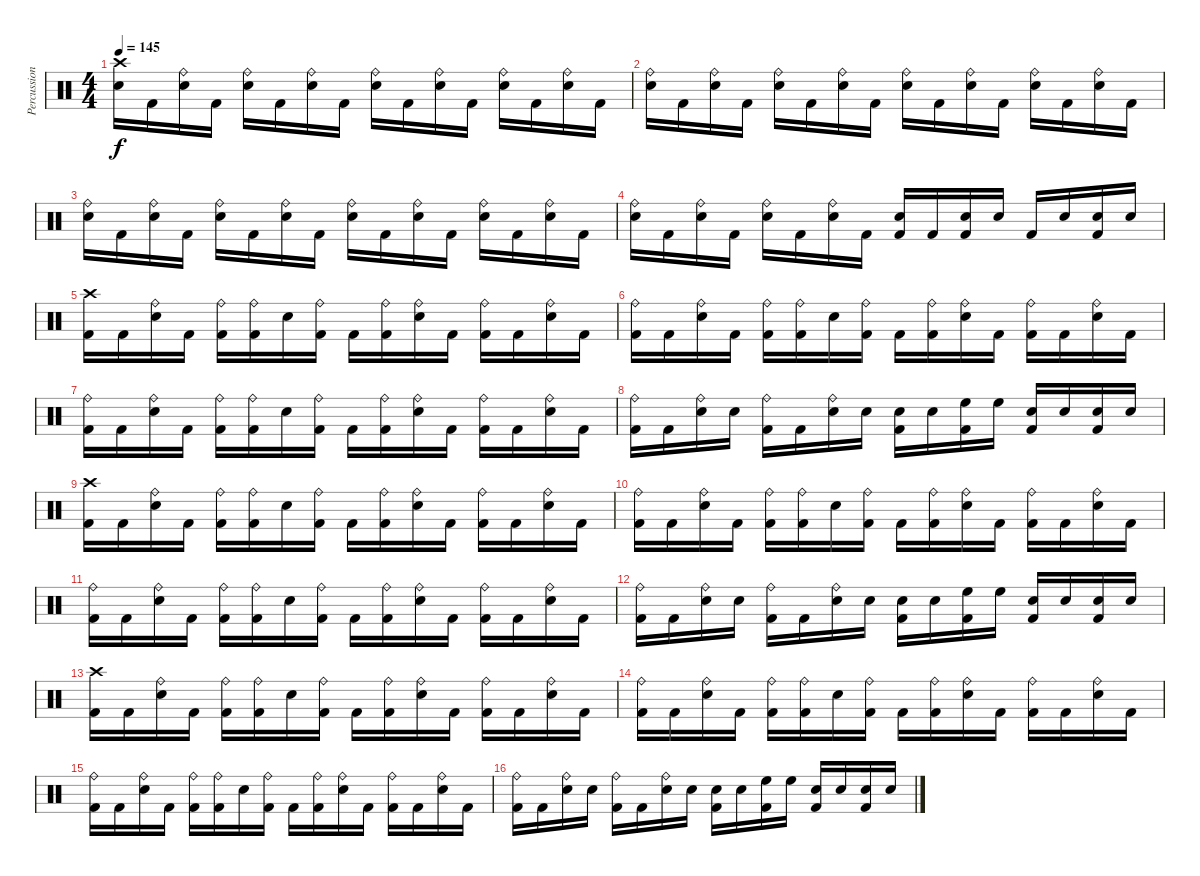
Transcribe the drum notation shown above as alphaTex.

\track ("Percussion" "Percussion") {instrument percussion}
\staff {score}
\articulation defaults
\ts (4 4)
\tempo 145
\clef neutral
\ks c
("Electric Snare (hit)" "Crash high (hit)").16{dy f} "Kick (hit) 2".16 ("Electric Snare (hit)" "Ride (bell)").16 "Kick (hit) 2".16 ("Electric Snare (hit)" "Ride (bell)").16 "Kick (hit) 2".16 ("Electric Snare (hit)" "Ride (bell)").16 "Kick (hit) 2".16 ("Electric Snare (hit)" "Ride (bell)").16 "Kick (hit) 2".16 ("Electric Snare (hit)" "Ride (bell)").16 "Kick (hit) 2".16 ("Electric Snare (hit)" "Ride (bell)").16 "Kick (hit) 2".16 ("Electric Snare (hit)" "Ride (bell)").16 "Kick (hit) 2".16 |
("Electric Snare (hit)" "Ride (bell)").16 "Kick (hit) 2".16 ("Electric Snare (hit)" "Ride (bell)").16 "Kick (hit) 2".16 ("Electric Snare (hit)" "Ride (bell)").16 "Kick (hit) 2".16 ("Electric Snare (hit)" "Ride (bell)").16 "Kick (hit) 2".16 ("Electric Snare (hit)" "Ride (bell)").16 "Kick (hit) 2".16 ("Electric Snare (hit)" "Ride (bell)").16 "Kick (hit) 2".16 ("Electric Snare (hit)" "Ride (bell)").16 "Kick (hit) 2".16 ("Electric Snare (hit)" "Ride (bell)").16 "Kick (hit) 2".16 |
("Electric Snare (hit)" "Ride (bell)").16 "Kick (hit) 2".16 ("Electric Snare (hit)" "Ride (bell)").16 "Kick (hit) 2".16 ("Electric Snare (hit)" "Ride (bell)").16 "Kick (hit) 2".16 ("Electric Snare (hit)" "Ride (bell)").16 "Kick (hit) 2".16 ("Electric Snare (hit)" "Ride (bell)").16 "Kick (hit) 2".16 ("Electric Snare (hit)" "Ride (bell)").16 "Kick (hit) 2".16 ("Electric Snare (hit)" "Ride (bell)").16 "Kick (hit) 2".16 ("Electric Snare (hit)" "Ride (bell)").16 "Kick (hit) 2".16 |
("Electric Snare (hit)" "Ride (bell)").16 "Kick (hit) 2".16 ("Electric Snare (hit)" "Ride (bell)").16 "Kick (hit) 2".16 ("Electric Snare (hit)" "Ride (bell)").16 "Kick (hit) 2".16 ("Electric Snare (hit)" "Ride (bell)").16 "Kick (hit) 2".16 ("Electric Snare (hit)" "Kick (hit) 2").16 "Kick (hit) 2".16 ("Electric Snare (hit)" "Kick (hit) 2").16 "Electric Snare (hit)".16 "Kick (hit) 2".16 "Electric Snare (hit)".16 ("Electric Snare (hit)" "Kick (hit) 2").16 "Electric Snare (hit)".16 |
("Kick (hit) 2" "Crash high (hit)").16 "Kick (hit) 2".16 ("Electric Snare (hit)" "Ride (bell)").16 "Kick (hit) 2".16 ("Kick (hit) 2" "Ride (bell)").16 ("Kick (hit) 2" "Ride (bell)").16 "Electric Snare (hit)".16 ("Kick (hit) 2" "Ride (bell)").16 "Kick (hit) 2".16 ("Kick (hit) 2" "Ride (bell)").16 ("Electric Snare (hit)" "Ride (bell)").16 "Kick (hit) 2".16 ("Kick (hit) 2" "Ride (bell)").16 "Kick (hit) 2".16 ("Electric Snare (hit)" "Ride (bell)").16 "Kick (hit) 2".16 |
("Kick (hit) 2" "Ride (bell)").16 "Kick (hit) 2".16 ("Electric Snare (hit)" "Ride (bell)").16 "Kick (hit) 2".16 ("Kick (hit) 2" "Ride (bell)").16 ("Kick (hit) 2" "Ride (bell)").16 "Electric Snare (hit)".16 ("Kick (hit) 2" "Ride (bell)").16 "Kick (hit) 2".16 ("Kick (hit) 2" "Ride (bell)").16 ("Electric Snare (hit)" "Ride (bell)").16 "Kick (hit) 2".16 ("Kick (hit) 2" "Ride (bell)").16 "Kick (hit) 2".16 ("Electric Snare (hit)" "Ride (bell)").16 "Kick (hit) 2".16 |
("Kick (hit) 2" "Ride (bell)").16 "Kick (hit) 2".16 ("Electric Snare (hit)" "Ride (bell)").16 "Kick (hit) 2".16 ("Kick (hit) 2" "Ride (bell)").16 ("Kick (hit) 2" "Ride (bell)").16 "Electric Snare (hit)".16 ("Kick (hit) 2" "Ride (bell)").16 "Kick (hit) 2".16 ("Kick (hit) 2" "Ride (bell)").16 ("Electric Snare (hit)" "Ride (bell)").16 "Kick (hit) 2".16 ("Kick (hit) 2" "Ride (bell)").16 "Kick (hit) 2".16 ("Electric Snare (hit)" "Ride (bell)").16 "Kick (hit) 2".16 |
("Kick (hit) 2" "Ride (bell)").16 "Kick (hit) 2".16 ("Electric Snare (hit)" "Ride (bell)").16 "Electric Snare (hit)".16 ("Kick (hit) 2" "Ride (bell)").16 "Kick (hit) 2".16 ("Electric Snare (hit)" "Ride (bell)").16 "Electric Snare (hit)".16 ("Electric Snare (hit)" "Kick (hit) 2").16 "Electric Snare (hit)".16 ("High Floor Tom (hit)" "Kick (hit) 2").16 "High Floor Tom (hit)".16 ("Electric Snare (hit)" "Kick (hit) 2").16 "Electric Snare (hit)".16 ("Electric Snare (hit)" "Kick (hit) 2").16 "Electric Snare (hit)".16 |
("Kick (hit) 2" "Crash high (hit)").16{volume 11} "Kick (hit) 2".16 ("Electric Snare (hit)" "Ride (bell)").16 "Kick (hit) 2".16 ("Kick (hit) 2" "Ride (bell)").16 ("Kick (hit) 2" "Ride (bell)").16 "Electric Snare (hit)".16 ("Kick (hit) 2" "Ride (bell)").16 "Kick (hit) 2".16 ("Kick (hit) 2" "Ride (bell)").16 ("Electric Snare (hit)" "Ride (bell)").16 "Kick (hit) 2".16 ("Kick (hit) 2" "Ride (bell)").16 "Kick (hit) 2".16 ("Electric Snare (hit)" "Ride (bell)").16 "Kick (hit) 2".16 |
("Kick (hit) 2" "Ride (bell)").16 "Kick (hit) 2".16 ("Electric Snare (hit)" "Ride (bell)").16 "Kick (hit) 2".16 ("Kick (hit) 2" "Ride (bell)").16 ("Kick (hit) 2" "Ride (bell)").16 "Electric Snare (hit)".16 ("Kick (hit) 2" "Ride (bell)").16 "Kick (hit) 2".16 ("Kick (hit) 2" "Ride (bell)").16 ("Electric Snare (hit)" "Ride (bell)").16 "Kick (hit) 2".16 ("Kick (hit) 2" "Ride (bell)").16 "Kick (hit) 2".16 ("Electric Snare (hit)" "Ride (bell)").16 "Kick (hit) 2".16 |
("Kick (hit) 2" "Ride (bell)").16{volume 9} "Kick (hit) 2".16 ("Electric Snare (hit)" "Ride (bell)").16 "Kick (hit) 2".16 ("Kick (hit) 2" "Ride (bell)").16 ("Kick (hit) 2" "Ride (bell)").16 "Electric Snare (hit)".16 ("Kick (hit) 2" "Ride (bell)").16 "Kick (hit) 2".16 ("Kick (hit) 2" "Ride (bell)").16 ("Electric Snare (hit)" "Ride (bell)").16 "Kick (hit) 2".16 ("Kick (hit) 2" "Ride (bell)").16 "Kick (hit) 2".16 ("Electric Snare (hit)" "Ride (bell)").16 "Kick (hit) 2".16 |
("Kick (hit) 2" "Ride (bell)").16 "Kick (hit) 2".16 ("Electric Snare (hit)" "Ride (bell)").16 "Electric Snare (hit)".16 ("Kick (hit) 2" "Ride (bell)").16 "Kick (hit) 2".16 ("Electric Snare (hit)" "Ride (bell)").16 "Electric Snare (hit)".16 ("Electric Snare (hit)" "Kick (hit) 2").16 "Electric Snare (hit)".16 ("High Floor Tom (hit)" "Kick (hit) 2").16 "High Floor Tom (hit)".16 ("Electric Snare (hit)" "Kick (hit) 2").16 "Electric Snare (hit)".16 ("Electric Snare (hit)" "Kick (hit) 2").16 "Electric Snare (hit)".16 |
("Kick (hit) 2" "Crash high (hit)").16{volume 7} "Kick (hit) 2".16 ("Electric Snare (hit)" "Ride (bell)").16 "Kick (hit) 2".16 ("Kick (hit) 2" "Ride (bell)").16 ("Kick (hit) 2" "Ride (bell)").16 "Electric Snare (hit)".16 ("Kick (hit) 2" "Ride (bell)").16 "Kick (hit) 2".16 ("Kick (hit) 2" "Ride (bell)").16 ("Electric Snare (hit)" "Ride (bell)").16 "Kick (hit) 2".16 ("Kick (hit) 2" "Ride (bell)").16 "Kick (hit) 2".16 ("Electric Snare (hit)" "Ride (bell)").16 "Kick (hit) 2".16 |
("Kick (hit) 2" "Ride (bell)").16 "Kick (hit) 2".16 ("Electric Snare (hit)" "Ride (bell)").16 "Kick (hit) 2".16 ("Kick (hit) 2" "Ride (bell)").16 ("Kick (hit) 2" "Ride (bell)").16 "Electric Snare (hit)".16 ("Kick (hit) 2" "Ride (bell)").16 "Kick (hit) 2".16 ("Kick (hit) 2" "Ride (bell)").16 ("Electric Snare (hit)" "Ride (bell)").16 "Kick (hit) 2".16 ("Kick (hit) 2" "Ride (bell)").16 "Kick (hit) 2".16 ("Electric Snare (hit)" "Ride (bell)").16 "Kick (hit) 2".16 |
("Kick (hit) 2" "Ride (bell)").16{volume 5} "Kick (hit) 2".16 ("Electric Snare (hit)" "Ride (bell)").16 "Kick (hit) 2".16 ("Kick (hit) 2" "Ride (bell)").16 ("Kick (hit) 2" "Ride (bell)").16 "Electric Snare (hit)".16 ("Kick (hit) 2" "Ride (bell)").16 "Kick (hit) 2".16 ("Kick (hit) 2" "Ride (bell)").16 ("Electric Snare (hit)" "Ride (bell)").16 "Kick (hit) 2".16 ("Kick (hit) 2" "Ride (bell)").16 "Kick (hit) 2".16 ("Electric Snare (hit)" "Ride (bell)").16 "Kick (hit) 2".16 |
("Kick (hit) 2" "Ride (bell)").16 "Kick (hit) 2".16 ("Electric Snare (hit)" "Ride (bell)").16 "Electric Snare (hit)".16 ("Kick (hit) 2" "Ride (bell)").16 "Kick (hit) 2".16 ("Electric Snare (hit)" "Ride (bell)").16 "Electric Snare (hit)".16 ("Electric Snare (hit)" "Kick (hit) 2").16 "Electric Snare (hit)".16 ("High Floor Tom (hit)" "Kick (hit) 2").16 "High Floor Tom (hit)".16 ("Electric Snare (hit)" "Kick (hit) 2").16 "Electric Snare (hit)".16 ("Electric Snare (hit)" "Kick (hit) 2").16 "Electric Snare (hit)".16
